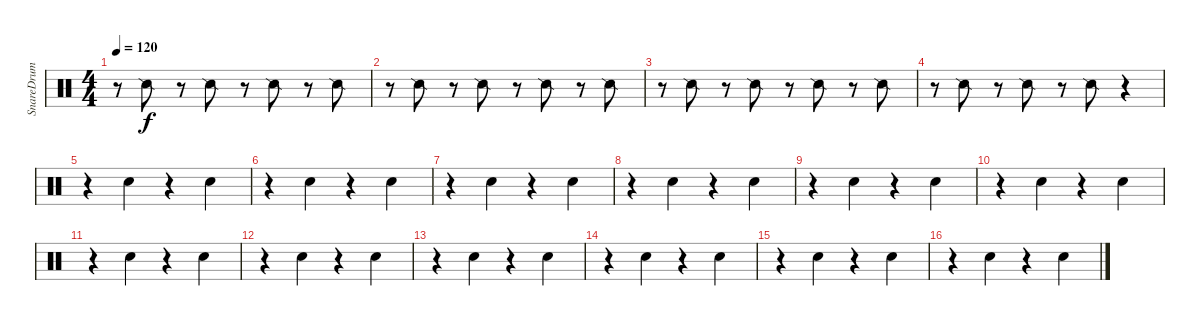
\track ("SnareDrum" "SnareDrum") {instrument percussion}
\staff {score}
\articulation defaults
\ts (4 4)
\tempo 120
\clef neutral
\ks c
r.8{dy f} "Snare (side stick) 2".8 r.8 "Snare (side stick) 2".8 r.8 "Snare (side stick) 2".8 r.8 "Snare (side stick) 2".8 |
r.8 "Snare (side stick) 2".8 r.8 "Snare (side stick) 2".8 r.8 "Snare (side stick) 2".8 r.8 "Snare (side stick) 2".8 |
r.8 "Snare (side stick) 2".8 r.8 "Snare (side stick) 2".8 r.8 "Snare (side stick) 2".8 r.8 "Snare (side stick) 2".8 |
r.8 "Snare (side stick) 2".8 r.8 "Snare (side stick) 2".8 r.8 "Snare (side stick) 2".8 r.4 |
r.4 "Snare (hit) 2".4 r.4 "Snare (hit) 2".4 |
r.4 "Snare (hit) 2".4 r.4 "Snare (hit) 2".4 |
r.4 "Snare (hit) 2".4 r.4 "Snare (hit) 2".4 |
r.4 "Snare (hit) 2".4 r.4 "Snare (hit) 2".4 |
r.4 "Snare (hit) 2".4 r.4 "Snare (hit) 2".4 |
r.4 "Snare (hit) 2".4 r.4 "Snare (hit) 2".4 |
r.4 "Snare (hit) 2".4 r.4 "Snare (hit) 2".4 |
r.4 "Snare (hit) 2".4 r.4 "Snare (hit) 2".4 |
r.4 "Snare (hit) 2".4 r.4 "Snare (hit) 2".4 |
r.4 "Snare (hit) 2".4 r.4 "Snare (hit) 2".4 |
r.4 "Snare (hit) 2".4 r.4 "Snare (hit) 2".4 |
r.4 "Snare (hit) 2".4 r.4 "Snare (hit) 2".4
